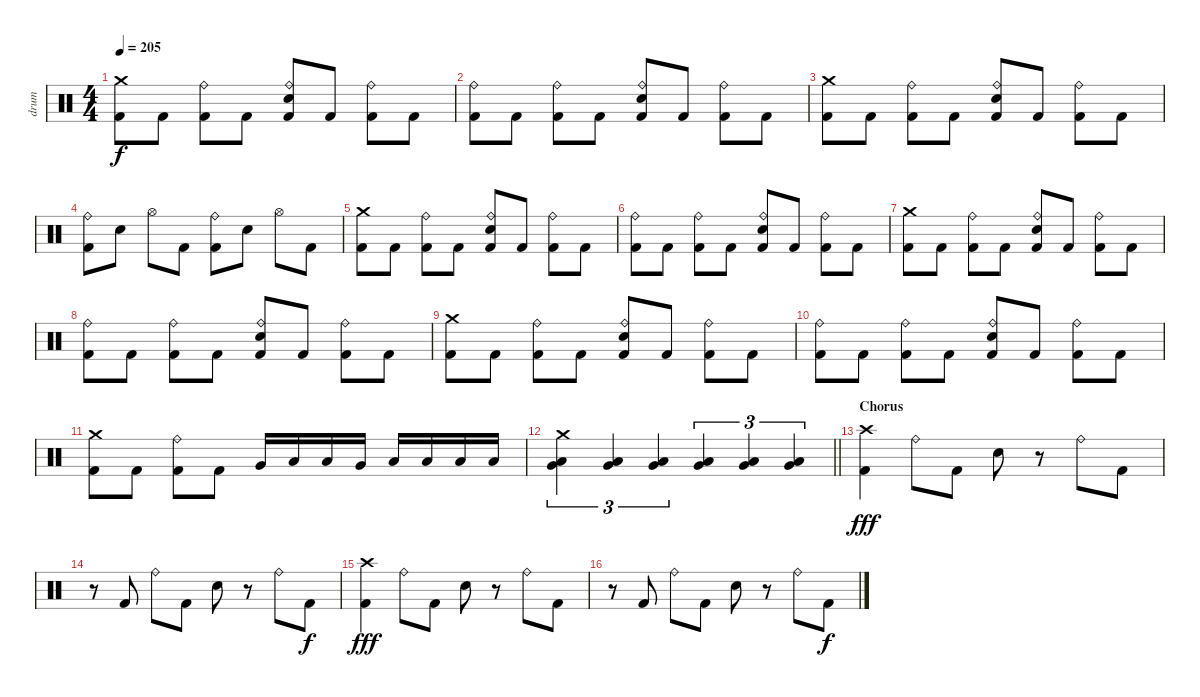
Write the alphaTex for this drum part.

\track ("drum" "drum") {instrument percussion}
\staff {score}
\articulation defaults
\ts (4 4)
\tempo 205
\clef neutral
\ks c
("Crash medium (hit)" "Kick (hit) 2").8{dy f} "Kick (hit) 2".8 ("Ride (bell)" "Kick (hit) 2").8 "Kick (hit) 2".8 ("Ride (bell)" "Electric Snare (hit)" "Kick (hit) 2").8 "Kick (hit) 2".8 ("Ride (bell)" "Kick (hit) 2").8 "Kick (hit) 2".8 |
("Ride (bell)" "Kick (hit) 2").8 "Kick (hit) 2".8 ("Ride (bell)" "Kick (hit) 2").8 "Kick (hit) 2".8 ("Ride (bell)" "Electric Snare (hit)" "Kick (hit) 2").8 "Kick (hit) 2".8 ("Ride (bell)" "Kick (hit) 2").8 "Kick (hit) 2".8 |
("Crash medium (hit)" "Kick (hit) 2").8 "Kick (hit) 2".8 ("Ride (bell)" "Kick (hit) 2").8 "Kick (hit) 2".8 ("Ride (bell)" "Electric Snare (hit)" "Kick (hit) 2").8 "Kick (hit) 2".8 ("Ride (bell)" "Kick (hit) 2").8 "Kick (hit) 2".8 |
("Ride (bell)" "Kick (hit) 2").8 "Electric Snare (hit)".8 "Hi-Hat (open)".8 "Kick (hit) 2".8 ("Ride (bell)" "Kick (hit) 2").8 "Electric Snare (hit)".8 "Hi-Hat (open)".8 "Kick (hit) 2".8 |
("Crash medium (hit)" "Kick (hit) 2").8 "Kick (hit) 2".8 ("Ride (bell)" "Kick (hit) 2").8 "Kick (hit) 2".8 ("Ride (bell)" "Electric Snare (hit)" "Kick (hit) 2").8 "Kick (hit) 2".8 ("Ride (bell)" "Kick (hit) 2").8 "Kick (hit) 2".8 |
("Ride (bell)" "Kick (hit) 2").8 "Kick (hit) 2".8 ("Ride (bell)" "Kick (hit) 2").8 "Kick (hit) 2".8 ("Ride (bell)" "Electric Snare (hit)" "Kick (hit) 2").8 "Kick (hit) 2".8 ("Ride (bell)" "Kick (hit) 2").8 "Kick (hit) 2".8 |
("Crash medium (hit)" "Kick (hit) 2").8 "Kick (hit) 2".8 ("Ride (bell)" "Kick (hit) 2").8 "Kick (hit) 2".8 ("Ride (bell)" "Electric Snare (hit)" "Kick (hit) 2").8 "Kick (hit) 2".8 ("Ride (bell)" "Kick (hit) 2").8 "Kick (hit) 2".8 |
("Ride (bell)" "Kick (hit) 2").8 "Kick (hit) 2".8 ("Ride (bell)" "Kick (hit) 2").8 "Kick (hit) 2".8 ("Ride (bell)" "Electric Snare (hit)" "Kick (hit) 2").8 "Kick (hit) 2".8 ("Ride (bell)" "Kick (hit) 2").8 "Kick (hit) 2".8 |
("Crash medium (hit)" "Kick (hit) 2").8 "Kick (hit) 2".8 ("Ride (bell)" "Kick (hit) 2").8 "Kick (hit) 2".8 ("Ride (bell)" "Electric Snare (hit)" "Kick (hit) 2").8 "Kick (hit) 2".8 ("Ride (bell)" "Kick (hit) 2").8 "Kick (hit) 2".8 |
("Ride (bell)" "Kick (hit) 2").8 "Kick (hit) 2".8 ("Ride (bell)" "Kick (hit) 2").8 "Kick (hit) 2".8 ("Ride (bell)" "Electric Snare (hit)" "Kick (hit) 2").8 "Kick (hit) 2".8 ("Ride (bell)" "Kick (hit) 2").8 "Kick (hit) 2".8 |
("Crash medium (hit)" "Kick (hit) 2").8 "Kick (hit) 2".8 ("Ride (bell)" "Kick (hit) 2").8 "Kick (hit) 2".8 "Very Low Tom (hit)".16 "Low Tom (hit)".16 "Low Tom (hit)".16 "Very Low Tom (hit)".16 "Low Floor Tom (hit)".16 "Low Floor Tom (hit)".16 "Low Floor Tom (hit)".16 "Low Floor Tom (hit)".16 |
\barLineRight lightlight
("Crash medium (hit)" "Low Floor Tom (hit)" "Very Low Tom (hit)").4{tu (3 2)} ("Low Floor Tom (hit)" "Very Low Tom (hit)").4{tu (3 2)} ("Low Floor Tom (hit)" "Very Low Tom (hit)").4{tu (3 2)} ("Low Floor Tom (hit)" "Very Low Tom (hit)").4{tu (3 2)} ("Low Floor Tom (hit)" "Very Low Tom (hit)").4{tu (3 2)} ("Low Floor Tom (hit)" "Very Low Tom (hit)").4{tu (3 2)} |
\section ("" "Chorus")
("Crash high (hit)" "Kick (hit) 2").4{dy fff} "Ride (bell)".8 "Kick (hit) 2".8 "Electric Snare (hit)".8 r.8 "Ride (bell)".8 "Kick (hit) 2".8 |
r.8 "Kick (hit) 2".8 "Ride (bell)".8 "Kick (hit) 2".8 "Electric Snare (hit)".8 r.8 "Ride (bell)".8 "Kick (hit) 2".8{dy f} |
("Crash high (hit)" "Kick (hit) 2").4{dy fff} "Ride (bell)".8 "Kick (hit) 2".8 "Electric Snare (hit)".8 r.8 "Ride (bell)".8 "Kick (hit) 2".8 |
r.8 "Kick (hit) 2".8 "Ride (bell)".8 "Kick (hit) 2".8 "Electric Snare (hit)".8 r.8 "Ride (bell)".8 "Kick (hit) 2".8{dy f}
